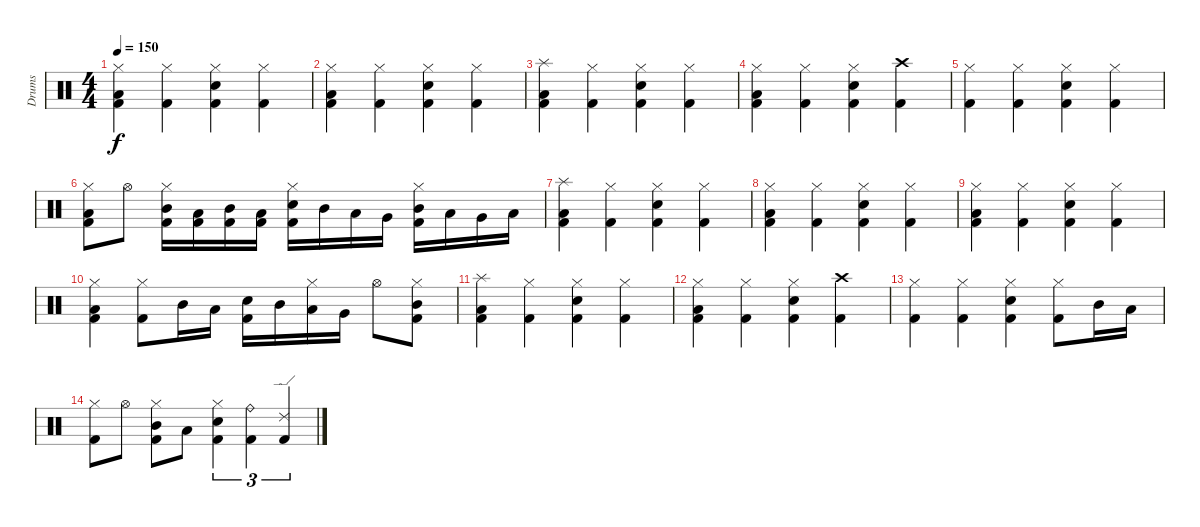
\track ("Drums" "Drums") {instrument percussion}
\staff {score}
\articulation defaults
\ts (4 4)
\tempo 150
\clef neutral
\ks c
("Hi-Hat (closed)" "Low Tom (hit)" "Kick (hit) 2").4{dy f} ("Hi-Hat (closed)" "Kick (hit) 2").4 ("Hi-Hat (closed)" "Electric Snare (hit)" "Kick (hit) 2").4 ("Hi-Hat (closed)" "Kick (hit) 2").4 |
("Hi-Hat (closed)" "Low Tom (hit)" "Kick (hit) 2").4 ("Hi-Hat (closed)" "Kick (hit) 2").4 ("Hi-Hat (closed)" "Electric Snare (hit)" "Kick (hit) 2").4 ("Hi-Hat (closed)" "Kick (hit) 2").4 |
("Splash (hit)" "Low Tom (hit)" "Kick (hit) 2").4 ("Hi-Hat (closed)" "Kick (hit) 2").4 ("Hi-Hat (closed)" "Electric Snare (hit)" "Kick (hit) 2").4 ("Hi-Hat (closed)" "Kick (hit) 2").4 |
("Hi-Hat (closed)" "Low Tom (hit)" "Kick (hit) 2").4 ("Hi-Hat (closed)" "Kick (hit) 2").4 ("Hi-Hat (closed)" "Electric Snare (hit)" "Kick (hit) 2").4 ("Crash high (hit)" "Kick (hit) 2").4 |
("Hi-Hat (closed)" "Kick (hit) 2").4 ("Hi-Hat (closed)" "Kick (hit) 2").4 ("Hi-Hat (closed)" "Electric Snare (hit)" "Kick (hit) 2").4 ("Hi-Hat (closed)" "Kick (hit) 2").4 |
("Hi-Hat (closed)" "Low Tom (hit)" "Kick (hit) 2").8 "Hi-Hat (open)".8 ("Hi-Hat (closed)" "Mid Tom (hit)" "Kick (hit) 2").16 ("Low Tom (hit)" "Kick (hit) 2").16 ("Mid Tom (hit)" "Kick (hit) 2").16 ("Low Tom (hit)" "Kick (hit) 2").16 ("Hi-Hat (closed)" "Electric Snare (hit)" "Kick (hit) 2").16 "Mid Tom (hit)".16 "Low Tom (hit)".16 "Very Low Tom (hit)".16 ("Hi-Hat (closed)" "Mid Tom (hit)" "Kick (hit) 2").16 "Low Tom (hit)".16 "Very Low Tom (hit)".16 "Low Floor Tom (hit)".16 |
("Splash (hit)" "Low Tom (hit)" "Kick (hit) 2").4 ("Hi-Hat (closed)" "Kick (hit) 2").4 ("Hi-Hat (closed)" "Electric Snare (hit)" "Kick (hit) 2").4 ("Hi-Hat (closed)" "Kick (hit) 2").4 |
("Hi-Hat (closed)" "Low Tom (hit)" "Kick (hit) 2").4 ("Hi-Hat (closed)" "Kick (hit) 2").4 ("Hi-Hat (closed)" "Electric Snare (hit)" "Kick (hit) 2").4 ("Hi-Hat (closed)" "Kick (hit) 2").4 |
("Hi-Hat (closed)" "Low Tom (hit)" "Kick (hit) 2").4 ("Hi-Hat (closed)" "Kick (hit) 2").4 ("Hi-Hat (closed)" "Electric Snare (hit)" "Kick (hit) 2").4 ("Hi-Hat (closed)" "Kick (hit) 2").4 |
("Hi-Hat (closed)" "Low Tom (hit)" "Kick (hit) 2").4 ("Hi-Hat (closed)" "Kick (hit) 2").8 "Mid Tom (hit)".16 "Low Tom (hit)".16 ("Electric Snare (hit)" "Kick (hit) 2").16 "Mid Tom (hit)".16 ("Hi-Hat (closed)" "Low Tom (hit)").16 "Very Low Tom (hit)".16 "Hi-Hat (open)".8 ("Hi-Hat (closed)" "Mid Tom (hit)" "Kick (hit) 2").8 |
("Splash (hit)" "Low Tom (hit)" "Kick (hit) 2").4 ("Hi-Hat (closed)" "Kick (hit) 2").4 ("Hi-Hat (closed)" "Electric Snare (hit)" "Kick (hit) 2").4 ("Hi-Hat (closed)" "Kick (hit) 2").4 |
("Hi-Hat (closed)" "Low Tom (hit)" "Kick (hit) 2").4 ("Hi-Hat (closed)" "Kick (hit) 2").4 ("Hi-Hat (closed)" "Electric Snare (hit)" "Kick (hit) 2").4 ("Crash high (hit)" "Kick (hit) 2").4 |
("Hi-Hat (closed)" "Kick (hit) 2").4 ("Hi-Hat (closed)" "Kick (hit) 2").4 ("Hi-Hat (closed)" "Electric Snare (hit)" "Kick (hit) 2").4 ("Hi-Hat (closed)" "Kick (hit) 2").8 "Mid Tom (hit)".16 "Low Tom (hit)".16 |
("Hi-Hat (closed)" "Kick (hit) 2").8 "Hi-Hat (open)".8 ("Hi-Hat (closed)" "Mid Tom (hit)" "Kick (hit) 2").8 "Low Tom (hit)".8 ("Hi-Hat (closed)" "Electric Snare (hit)" "Kick (hit) 2").4{tu (3 2)} ("Ride (bell)" "Kick (hit) 2").4{tu (3 2)} ("Ride (edge) 2" "Kick (hit) 2").4{tu (3 2)}
